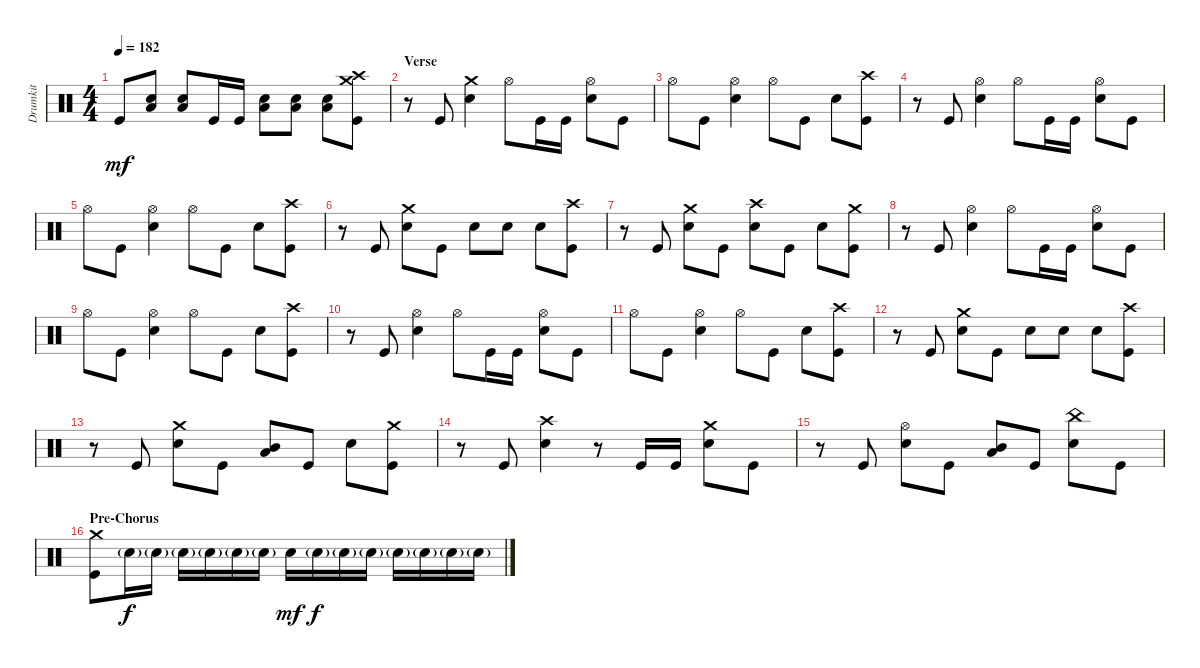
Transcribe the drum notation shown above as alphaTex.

\track ("Drumkit" "Drumkit") {instrument percussion}
\staff {score}
\articulation defaults
\ts (4 4)
\tempo 182
\clef neutral
\ks c "Kick (hit)".8{dy mf}
("Low Tom (hit)" "Snare (hit) 2").8 ("Low Tom (hit)" "Snare (hit) 2").8 "Kick (hit)".16 "Kick (hit)".16 ("Low Tom (hit)" "Snare (hit) 2").8 ("Low Tom (hit)" "Snare (hit) 2").8 ("Low Tom (hit)" "Snare (hit) 2").8 ("Kick (hit)" "Crash medium (hit)" "Crash high (hit)").8 |
\section ("" "Verse")
r.8 "Kick (hit)".8 ("Snare (hit) 2" "Crash medium (hit)").4 "Hi-Hat (open)".8 "Kick (hit)".16 "Kick (hit)".16 ("Snare (hit) 2" "Hi-Hat (open)").8 "Kick (hit)".8 |
"Hi-Hat (open)".8 "Kick (hit)".8 ("Snare (hit) 2" "Hi-Hat (open)").4 "Hi-Hat (open)".8 "Kick (hit)".8 "Snare (hit) 2".8 ("Kick (hit)" "Crash high (hit)").8 |
r.8 "Kick (hit)".8 ("Snare (hit) 2" "Hi-Hat (open)").4 "Hi-Hat (open)".8 "Kick (hit)".16 "Kick (hit)".16 ("Snare (hit) 2" "Hi-Hat (open)").8 "Kick (hit)".8 |
"Hi-Hat (open)".8 "Kick (hit)".8 ("Snare (hit) 2" "Hi-Hat (open)").4 "Hi-Hat (open)".8 "Kick (hit)".8 "Snare (hit) 2".8 ("Kick (hit)" "Crash high (hit)").8 |
r.8 "Kick (hit)".8 ("Snare (hit) 2" "Crash medium (hit)").8 "Kick (hit)".8 "Snare (hit) 2".8 "Snare (hit) 2".8 "Snare (hit) 2".8 ("Kick (hit)" "Crash high (hit)").8 |
r.8 "Kick (hit)".8 ("Snare (hit) 2" "Crash medium (hit)").8 "Kick (hit)".8 ("Snare (hit) 2" "Crash high (hit)").8 "Kick (hit)".8 "Snare (hit) 2".8 ("Kick (hit)" "Crash medium (hit)").8 |
r.8 "Kick (hit)".8 ("Snare (hit) 2" "Hi-Hat (open)").4 "Hi-Hat (open)".8 "Kick (hit)".16 "Kick (hit)".16 ("Snare (hit) 2" "Hi-Hat (open)").8 "Kick (hit)".8 |
"Hi-Hat (open)".8 "Kick (hit)".8 ("Snare (hit) 2" "Hi-Hat (open)").4 "Hi-Hat (open)".8 "Kick (hit)".8 "Snare (hit) 2".8 ("Kick (hit)" "Crash high (hit)").8 |
r.8 "Kick (hit)".8 ("Snare (hit) 2" "Hi-Hat (open)").4 "Hi-Hat (open)".8 "Kick (hit)".16 "Kick (hit)".16 ("Snare (hit) 2" "Hi-Hat (open)").8 "Kick (hit)".8 |
"Hi-Hat (open)".8 "Kick (hit)".8 ("Snare (hit) 2" "Hi-Hat (open)").4 "Hi-Hat (open)".8 "Kick (hit)".8 "Snare (hit) 2".8 ("Kick (hit)" "Crash high (hit)").8 |
r.8 "Kick (hit)".8 ("Snare (hit) 2" "Crash medium (hit)").8 "Kick (hit)".8 "Snare (hit) 2".8 "Snare (hit) 2".8 "Snare (hit) 2".8 ("Kick (hit)" "Crash high (hit)").8 |
r.8 "Kick (hit)".8 ("Snare (hit) 2" "Crash medium (hit)").8 "Kick (hit)".8 ("Low Tom (hit)" "Mid Tom (hit)").8 "Kick (hit)".8 "Snare (hit) 2".8 ("Kick (hit)" "Crash medium (hit)").8 |
r.8 "Kick (hit)".8 ("Snare (hit) 2" "Crash high (hit)").4 r.8 "Kick (hit)".16 "Kick (hit)".16 ("Snare (hit) 2" "Crash medium (hit)").8 "Kick (hit)".8 |
r.8 "Kick (hit)".8 ("Snare (hit) 2" "Hi-Hat (open)").8 "Kick (hit)".8 ("Low Tom (hit)" "Mid Tom (hit)").8 "Kick (hit)".8 ("Snare (hit) 2" "China (hit)").8 "Kick (hit)".8 |
\section ("" "Pre-Chorus")
("Kick (hit)" "Crash medium (hit)").8 "Snare (hit) 2"{g}.16{dy f} "Snare (hit) 2"{g}.16 "Snare (hit) 2"{g}.16 "Snare (hit) 2"{g}.16 "Snare (hit) 2"{g}.16 "Snare (hit) 2"{g}.16 "Snare (hit) 2".16{dy mf} "Snare (hit) 2"{g}.16{dy f} "Snare (hit) 2"{g}.16 "Snare (hit) 2"{g}.16 "Snare (hit) 2"{g}.16 "Snare (hit) 2"{g}.16 "Snare (hit) 2"{g}.16 "Snare (hit) 2"{g}.16
